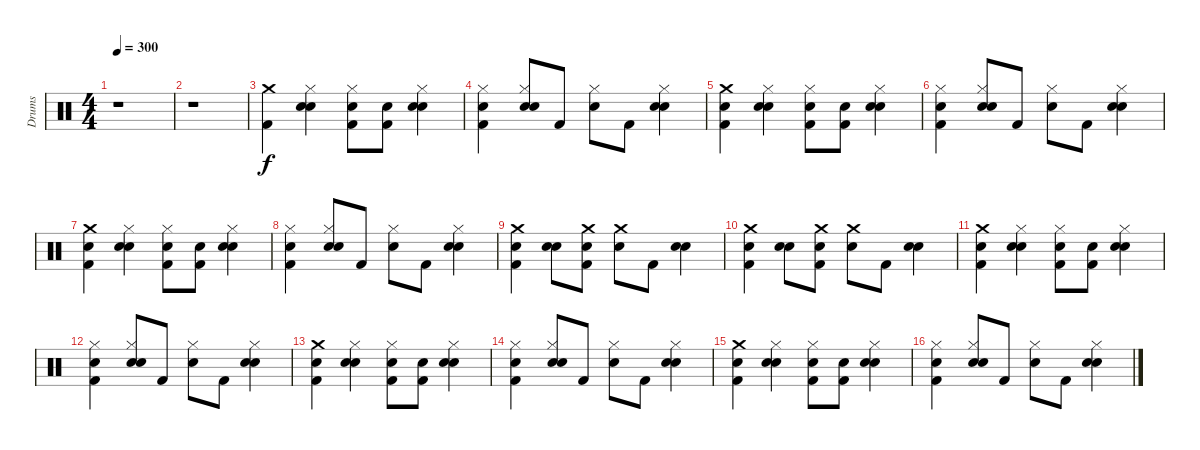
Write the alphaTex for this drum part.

\track ("Drums" "Drums") {instrument percussion}
\staff {score}
\articulation defaults
\ts (4 4)
\tempo 300
\clef neutral
\ks c
r.1{dy f} |
r.1 |
("Crash medium (hit)" "Kick (hit) 2").4 ("Snare (hit)" "Hi-Hat (closed)" "Electric Snare (hit)").4 ("Snare (hit)" "Hi-Hat (closed)" "Kick (hit) 2").8 ("Snare (hit)" "Kick (hit) 2").8 ("Snare (hit)" "Hi-Hat (closed)" "Electric Snare (hit)").4 |
("Snare (hit)" "Hi-Hat (closed)" "Kick (hit) 2").4 ("Snare (hit)" "Hi-Hat (closed)" "Electric Snare (hit)").8 "Kick (hit) 2".8 ("Snare (hit)" "Hi-Hat (closed)").8 "Kick (hit) 2".8 ("Snare (hit)" "Hi-Hat (closed)" "Electric Snare (hit)").4 |
("Snare (hit)" "Kick (hit) 2" "Crash medium (hit)").4 ("Snare (hit)" "Hi-Hat (closed)" "Electric Snare (hit)").4 ("Snare (hit)" "Hi-Hat (closed)" "Kick (hit) 2").8 ("Snare (hit)" "Kick (hit) 2").8 ("Snare (hit)" "Hi-Hat (closed)" "Electric Snare (hit)").4 |
("Snare (hit)" "Hi-Hat (closed)" "Kick (hit) 2").4 ("Snare (hit)" "Hi-Hat (closed)" "Electric Snare (hit)").8 "Kick (hit) 2".8 ("Snare (hit)" "Hi-Hat (closed)").8 "Kick (hit) 2".8 ("Snare (hit)" "Hi-Hat (closed)" "Electric Snare (hit)").4 |
("Snare (hit)" "Crash medium (hit)" "Kick (hit) 2").4 ("Snare (hit)" "Hi-Hat (closed)" "Electric Snare (hit)").4 ("Snare (hit)" "Hi-Hat (closed)" "Kick (hit) 2").8 ("Snare (hit)" "Kick (hit) 2").8 ("Snare (hit)" "Hi-Hat (closed)" "Electric Snare (hit)").4 |
("Snare (hit)" "Hi-Hat (closed)" "Kick (hit) 2").4 ("Snare (hit)" "Hi-Hat (closed)" "Electric Snare (hit)").8 "Kick (hit) 2".8 ("Snare (hit)" "Hi-Hat (closed)").8 "Kick (hit) 2".8 ("Snare (hit)" "Hi-Hat (closed)" "Electric Snare (hit)").4 |
("Snare (hit)" "Crash medium (hit)" "Kick (hit) 2").4 ("Snare (hit)" "Electric Snare (hit)").8 ("Snare (hit)" "Crash medium (hit)" "Kick (hit) 2").8 ("Snare (hit)" "Crash medium (hit)").8 "Kick (hit) 2".8 ("Snare (hit)" "Electric Snare (hit)").4 |
("Snare (hit)" "Crash medium (hit)" "Kick (hit) 2").4 ("Snare (hit)" "Electric Snare (hit)").8 ("Snare (hit)" "Crash medium (hit)" "Kick (hit) 2").8 ("Snare (hit)" "Crash medium (hit)").8 "Kick (hit) 2".8 ("Snare (hit)" "Electric Snare (hit)").4 |
("Snare (hit)" "Crash medium (hit)" "Kick (hit) 2").4 ("Snare (hit)" "Hi-Hat (closed)" "Electric Snare (hit)").4 ("Snare (hit)" "Hi-Hat (closed)" "Kick (hit) 2").8 ("Snare (hit)" "Kick (hit) 2").8 ("Snare (hit)" "Hi-Hat (closed)" "Electric Snare (hit)").4 |
("Snare (hit)" "Hi-Hat (closed)" "Kick (hit) 2").4 ("Snare (hit)" "Hi-Hat (closed)" "Electric Snare (hit)").8 "Kick (hit) 2".8 ("Snare (hit)" "Hi-Hat (closed)").8 "Kick (hit) 2".8 ("Snare (hit)" "Hi-Hat (closed)" "Electric Snare (hit)").4 |
("Snare (hit)" "Crash medium (hit)" "Kick (hit) 2").4 ("Snare (hit)" "Hi-Hat (closed)" "Electric Snare (hit)").4 ("Snare (hit)" "Hi-Hat (closed)" "Kick (hit) 2").8 ("Snare (hit)" "Kick (hit) 2").8 ("Snare (hit)" "Hi-Hat (closed)" "Electric Snare (hit)").4 |
("Snare (hit)" "Hi-Hat (closed)" "Kick (hit) 2").4 ("Snare (hit)" "Hi-Hat (closed)" "Electric Snare (hit)").8 "Kick (hit) 2".8 ("Snare (hit)" "Hi-Hat (closed)").8 "Kick (hit) 2".8 ("Snare (hit)" "Hi-Hat (closed)" "Electric Snare (hit)").4 |
("Snare (hit)" "Crash medium (hit)" "Kick (hit) 2").4 ("Snare (hit)" "Hi-Hat (closed)" "Electric Snare (hit)").4 ("Snare (hit)" "Hi-Hat (closed)" "Kick (hit) 2").8 ("Snare (hit)" "Kick (hit) 2").8 ("Snare (hit)" "Hi-Hat (closed)" "Electric Snare (hit)").4 |
("Snare (hit)" "Hi-Hat (closed)" "Kick (hit) 2").4 ("Snare (hit)" "Hi-Hat (closed)" "Electric Snare (hit)").8 "Kick (hit) 2".8 ("Snare (hit)" "Hi-Hat (closed)").8 "Kick (hit) 2".8 ("Snare (hit)" "Hi-Hat (closed)" "Electric Snare (hit)").4
